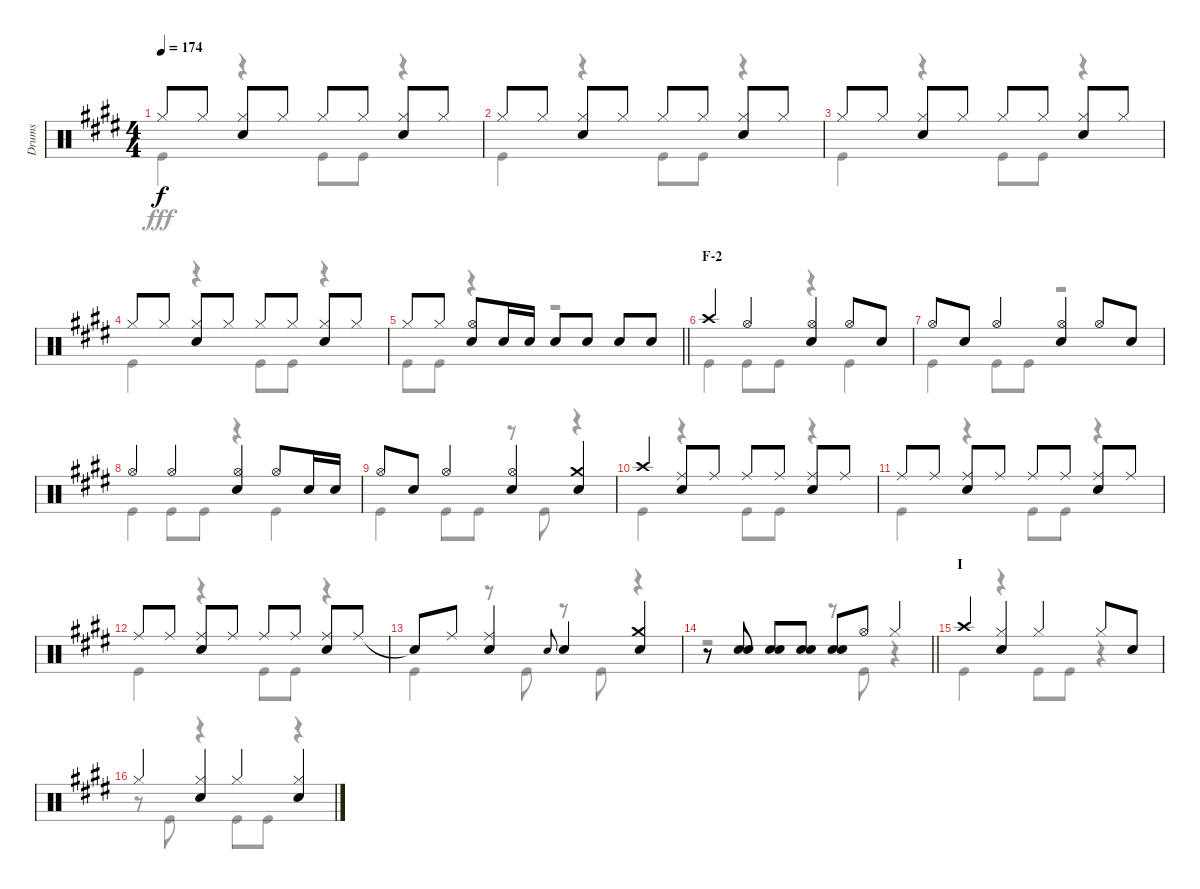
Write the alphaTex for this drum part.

\track ("Drums" "Drums") {instrument percussion}
\staff {score}
\articulation defaults
\voice
\ts (4 4)
\tempo 174
\clef neutral
\ks e "Hi-Hat (closed)".8{dy f} "Hi-Hat (closed)".8
("Hi-Hat (closed)" "Snare (hit) 2").8 "Hi-Hat (closed)".8 "Hi-Hat (closed)".8 "Hi-Hat (closed)".8 ("Hi-Hat (closed)" "Snare (hit) 2").8 "Hi-Hat (closed)".8 |
"Hi-Hat (closed)".8 "Hi-Hat (closed)".8 ("Hi-Hat (closed)" "Snare (hit) 2").8 "Hi-Hat (closed)".8 "Hi-Hat (closed)".8 "Hi-Hat (closed)".8 ("Hi-Hat (closed)" "Snare (hit) 2").8 "Hi-Hat (closed)".8 |
"Hi-Hat (closed)".8 "Hi-Hat (closed)".8 ("Hi-Hat (closed)" "Snare (hit) 2").8 "Hi-Hat (closed)".8 "Hi-Hat (closed)".8 "Hi-Hat (closed)".8 ("Hi-Hat (closed)" "Snare (hit) 2").8 "Hi-Hat (closed)".8 |
"Hi-Hat (closed)".8 "Hi-Hat (closed)".8 ("Hi-Hat (closed)" "Snare (hit) 2").8 "Hi-Hat (closed)".8 "Hi-Hat (closed)".8 "Hi-Hat (closed)".8 ("Hi-Hat (closed)" "Snare (hit) 2").8 "Hi-Hat (closed)".8 |
\barLineRight lightlight "Hi-Hat (closed)".8 "Hi-Hat (closed)".8
("Hi-Hat (open)" "Snare (hit) 2").8 "Snare (hit) 2".16 "Snare (hit) 2".16 "Snare (hit) 2".8 "Snare (hit) 2".8 "Snare (hit) 2".8 "Snare (hit) 2".8 |
\section ("" "F-2")
"Crash high (hit)".4 "Hi-Hat (open)".4 ("Hi-Hat (open)" "Snare (hit) 2").4 "Hi-Hat (open)".8 "Snare (hit) 2".8 |
"Hi-Hat (open)".8 "Snare (hit) 2".8 "Hi-Hat (open)".4 ("Hi-Hat (open)" "Snare (hit) 2").4 "Hi-Hat (open)".8 "Snare (hit) 2".8 |
"Hi-Hat (open)".4 "Hi-Hat (open)".4 ("Hi-Hat (open)" "Snare (hit) 2").4 "Hi-Hat (open)".8 "Snare (hit) 2".16 "Snare (hit) 2".16 |
"Hi-Hat (open)".8 "Snare (hit) 2".8 "Hi-Hat (open)".4 ("Hi-Hat (open)" "Snare (hit) 2").4 ("Crash medium (hit)" "Snare (hit) 2").4 |
"Crash high (hit)".4 ("Ride (middle)" "Snare (hit) 2").8 "Ride (middle)".8 "Ride (middle)".8 "Ride (middle)".8 ("Ride (middle)" "Snare (hit) 2").8 "Ride (middle)".8 |
"Ride (middle)".8 "Ride (middle)".8 ("Ride (middle)" "Snare (hit) 2").8 "Ride (middle)".8 "Ride (middle)".8 "Ride (middle)".8 ("Ride (middle)" "Snare (hit) 2").8 "Ride (middle)".8 |
"Ride (middle)".8 "Ride (middle)".8 ("Ride (middle)" "Snare (hit) 2").8 "Ride (middle)".8 "Ride (middle)".8 "Ride (middle)".8 ("Ride (middle)" "Snare (hit) 2").8 "Ride (middle)".8 |
"Snare (hit)"{t}.8 "Ride (middle)".8 ("Ride (middle)" "Snare (hit) 2").4 "Snare (hit) 2".8{gr onbeat} "Snare (hit) 2".4 ("Crash medium (hit)" "Snare (hit) 2").4 |
\barLineRight lightlight
r.8 ("Snare (hit) 2" "Snare (hit) 2").8 ("Snare (hit) 2" "Snare (hit) 2").8 ("Snare (hit) 2" "Snare (hit) 2").8 ("Snare (hit) 2" "Snare (hit) 2").8 "Hi-Hat (open)".8 "Hi-Hat (closed)".4 |
\section ("" "I")
"Crash high (hit)".4 ("Hi-Hat (closed)" "Snare (hit) 2").4 "Hi-Hat (closed)".4 "Hi-Hat (closed)".8 "Snare (hit) 2".8 |
"Hi-Hat (closed)".4 ("Hi-Hat (closed)" "Snare (hit) 2").4 "Hi-Hat (closed)".4 ("Hi-Hat (closed)" "Snare (hit) 2").4
\voice
\clef neutral
\ottava regular
\simile none
\ks e "Kick (hit)".4{dy fff}
r.4 "Kick (hit)".8 "Kick (hit)".8 r.4 |
"Kick (hit)".4 r.4 "Kick (hit)".8 "Kick (hit)".8 r.4 |
"Kick (hit)".4 r.4 "Kick (hit)".8 "Kick (hit)".8 r.4 |
"Kick (hit)".4 r.4 "Kick (hit)".8 "Kick (hit)".8 r.4 |
\barLineRight lightlight "Kick (hit)".8 "Kick (hit)".8
r.4 r.2 |
"Kick (hit)".4 "Kick (hit)".8 "Kick (hit)".8 r.4 "Kick (hit)".4 |
"Kick (hit)".4 "Kick (hit)".8 "Kick (hit)".8 r.2 |
"Kick (hit)".4 "Kick (hit)".8 "Kick (hit)".8 r.4 "Kick (hit)".4 |
"Kick (hit)".4 "Kick (hit)".8 "Kick (hit)".8 r.8 "Kick (hit)".8 r.4 |
"Kick (hit)".4 r.4 "Kick (hit)".8 "Kick (hit)".8 r.4 |
"Kick (hit)".4 r.4 "Kick (hit)".8 "Kick (hit)".8 r.4 |
"Kick (hit)".4 r.4 "Kick (hit)".8 "Kick (hit)".8 r.4 |
"Kick (hit)".4 r.8 "Kick (hit)".8 r.8 "Kick (hit)".8 r.4 |
\barLineRight lightlight
r.2 r.8 "Kick (hit)".8 r.4 |
"Kick (hit)".4 r.4 "Kick (hit)".8 "Kick (hit)".8 r.4 |
r.8 "Kick (hit)".8 r.4 "Kick (hit)".8 "Kick (hit)".8 r.4
